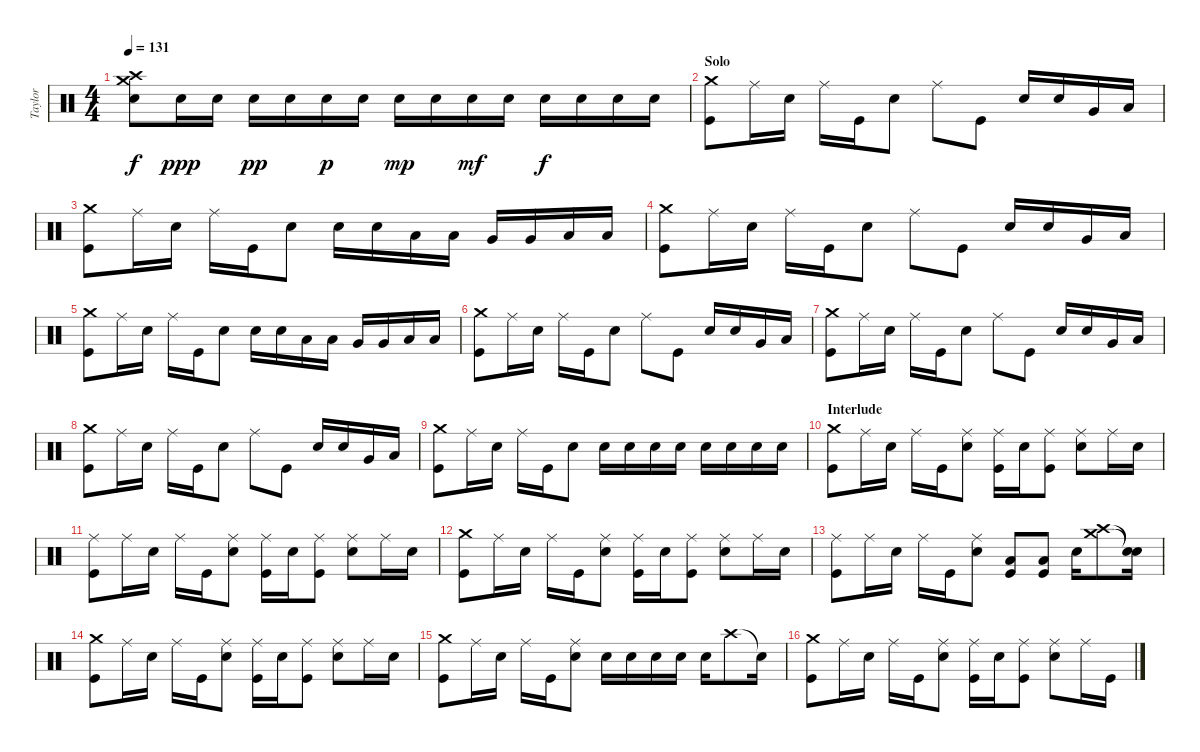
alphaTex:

\track ("Taylor" "Taylor") {instrument percussion}
\staff {score}
\articulation defaults
\ts (4 4)
\tempo 131
\clef neutral
\ks c
("Crash medium (hit)" "Crash high (hit)" "Snare (hit) 2").8{dy f} "Snare (hit) 2".16{dy ppp} "Snare (hit) 2".16 "Snare (hit) 2".16{dy pp} "Snare (hit) 2".16 "Snare (hit) 2".16{dy p} "Snare (hit) 2".16 "Snare (hit) 2".16{dy mp} "Snare (hit) 2".16 "Snare (hit) 2".16{dy mf} "Snare (hit) 2".16 "Snare (hit) 2".16{dy f} "Snare (hit) 2".16 "Snare (hit) 2".16 "Snare (hit) 2".16 |
\section ("" "Solo")
("Crash medium (hit)" "Kick (hit)").8 "Ride (middle)".16 "Snare (hit) 2".16 "Ride (middle)".16 "Kick (hit)".16 "Snare (hit) 2".8 "Ride (middle)".8 "Kick (hit)".8 "Snare (hit) 2".16 "Snare (hit) 2".16 "Very Low Tom (hit)".16 "Low Floor Tom (hit)".16 |
("Crash medium (hit)" "Kick (hit)").8 "Ride (middle)".16 "Snare (hit) 2".16 "Ride (middle)".16 "Kick (hit)".16 "Snare (hit) 2".8 "Snare (hit) 2".16 "Snare (hit) 2".16 "Low Tom (hit)".16 "Low Tom (hit)".16 "Very Low Tom (hit)".16 "Very Low Tom (hit)".16 "Low Floor Tom (hit)".16 "Low Floor Tom (hit)".16 |
("Crash medium (hit)" "Kick (hit)").8 "Ride (middle)".16 "Snare (hit) 2".16 "Ride (middle)".16 "Kick (hit)".16 "Snare (hit) 2".8 "Ride (middle)".8 "Kick (hit)".8 "Snare (hit) 2".16 "Snare (hit) 2".16 "Very Low Tom (hit)".16 "Low Floor Tom (hit)".16 |
("Crash medium (hit)" "Kick (hit)").8 "Ride (middle)".16 "Snare (hit) 2".16 "Ride (middle)".16 "Kick (hit)".16 "Snare (hit) 2".8 "Snare (hit) 2".16 "Snare (hit) 2".16 "Low Tom (hit)".16 "Low Tom (hit)".16 "Very Low Tom (hit)".16 "Very Low Tom (hit)".16 "Low Floor Tom (hit)".16 "Low Floor Tom (hit)".16 |
("Crash medium (hit)" "Kick (hit)").8 "Ride (middle)".16 "Snare (hit) 2".16 "Ride (middle)".16 "Kick (hit)".16 "Snare (hit) 2".8 "Ride (middle)".8 "Kick (hit)".8 "Snare (hit) 2".16 "Snare (hit) 2".16 "Very Low Tom (hit)".16 "Low Floor Tom (hit)".16 |
("Crash medium (hit)" "Kick (hit)").8 "Ride (middle)".16 "Snare (hit) 2".16 "Ride (middle)".16 "Kick (hit)".16 "Snare (hit) 2".8 "Ride (middle)".8 "Kick (hit)".8 "Snare (hit) 2".16 "Snare (hit) 2".16 "Very Low Tom (hit)".16 "Low Floor Tom (hit)".16 |
("Crash medium (hit)" "Kick (hit)").8 "Ride (middle)".16 "Snare (hit) 2".16 "Ride (middle)".16 "Kick (hit)".16 "Snare (hit) 2".8 "Ride (middle)".8 "Kick (hit)".8 "Snare (hit) 2".16 "Snare (hit) 2".16 "Very Low Tom (hit)".16 "Low Floor Tom (hit)".16 |
("Crash medium (hit)" "Kick (hit)").8 "Ride (middle)".16 "Snare (hit) 2".16 "Ride (middle)".16 "Kick (hit)".16 "Snare (hit) 2".8 "Snare (hit) 2".16 "Snare (hit) 2".16 "Snare (hit) 2".16 "Snare (hit) 2".16 "Snare (hit) 2".16 "Snare (hit) 2".16 "Snare (hit) 2".16 "Snare (hit) 2".16 |
\section ("" "Interlude")
("Crash medium (hit)" "Kick (hit)").8 "Ride (middle)".16 "Snare (hit) 2".16 "Ride (middle)".16 "Kick (hit)".16 ("Ride (middle)" "Snare (hit) 2").8 ("Ride (middle)" "Kick (hit)").16 "Snare (hit) 2".16 ("Ride (middle)" "Kick (hit)").8 ("Ride (middle)" "Snare (hit) 2").8 "Ride (middle)".16 "Snare (hit) 2".16 |
("Ride (middle)" "Kick (hit)").8 "Ride (middle)".16 "Snare (hit) 2".16 "Ride (middle)".16 "Kick (hit)".16 ("Ride (middle)" "Snare (hit) 2").8 ("Ride (middle)" "Kick (hit)").16 "Snare (hit) 2".16 ("Ride (middle)" "Kick (hit)").8 ("Ride (middle)" "Snare (hit) 2").8 "Ride (middle)".16 "Snare (hit) 2".16 |
("Crash medium (hit)" "Kick (hit)").8 "Ride (middle)".16 "Snare (hit) 2".16 "Ride (middle)".16 "Kick (hit)".16 ("Ride (middle)" "Snare (hit) 2").8 ("Ride (middle)" "Kick (hit)").16 "Snare (hit) 2".16 ("Ride (middle)" "Kick (hit)").8 ("Ride (middle)" "Snare (hit) 2").8 "Ride (middle)".16 "Snare (hit) 2".16 |
("Ride (middle)" "Kick (hit)").8 "Ride (middle)".16 "Snare (hit) 2".16 "Ride (middle)".16 "Kick (hit)".16 ("Ride (middle)" "Snare (hit) 2").8 ("Low Floor Tom (hit)"{pm} "Kick (hit)"{pm}).8 ("Low Floor Tom (hit)"{pm} "Kick (hit)"{pm}).8 "Snare (hit) 2".16 ("Crash medium (hit)" "Crash high (hit)").8 ("Snare (hit)"{t} "Snare (hit)"{t}).16 |
("Crash medium (hit)" "Kick (hit)").8 "Ride (middle)".16 "Snare (hit) 2".16 "Ride (middle)".16 "Kick (hit)".16 ("Ride (middle)" "Snare (hit) 2").8 ("Ride (middle)" "Kick (hit)").16 "Snare (hit) 2".16 ("Ride (middle)" "Kick (hit)").8 ("Ride (middle)" "Snare (hit) 2").8 "Ride (middle)".16 "Snare (hit) 2".16 |
("Crash medium (hit)" "Kick (hit)").8 "Ride (middle)".16 "Snare (hit) 2".16 "Ride (middle)".16 "Kick (hit)".16 ("Ride (middle)" "Snare (hit) 2").8 "Snare (hit) 2".16 "Snare (hit) 2".16 "Snare (hit) 2".16 "Snare (hit) 2".16 "Snare (hit) 2".16 "Crash high (hit)".8 "Snare (hit)"{t}.16 |
("Crash medium (hit)" "Kick (hit)").8 "Ride (middle)".16 "Snare (hit) 2".16 "Ride (middle)".16 "Kick (hit)".16 ("Ride (middle)" "Snare (hit) 2").8 ("Ride (middle)" "Kick (hit)").16 "Snare (hit) 2".16 ("Ride (middle)" "Kick (hit)").8 ("Ride (middle)" "Snare (hit) 2").8 "Ride (middle)".16 "Kick (hit)".16
